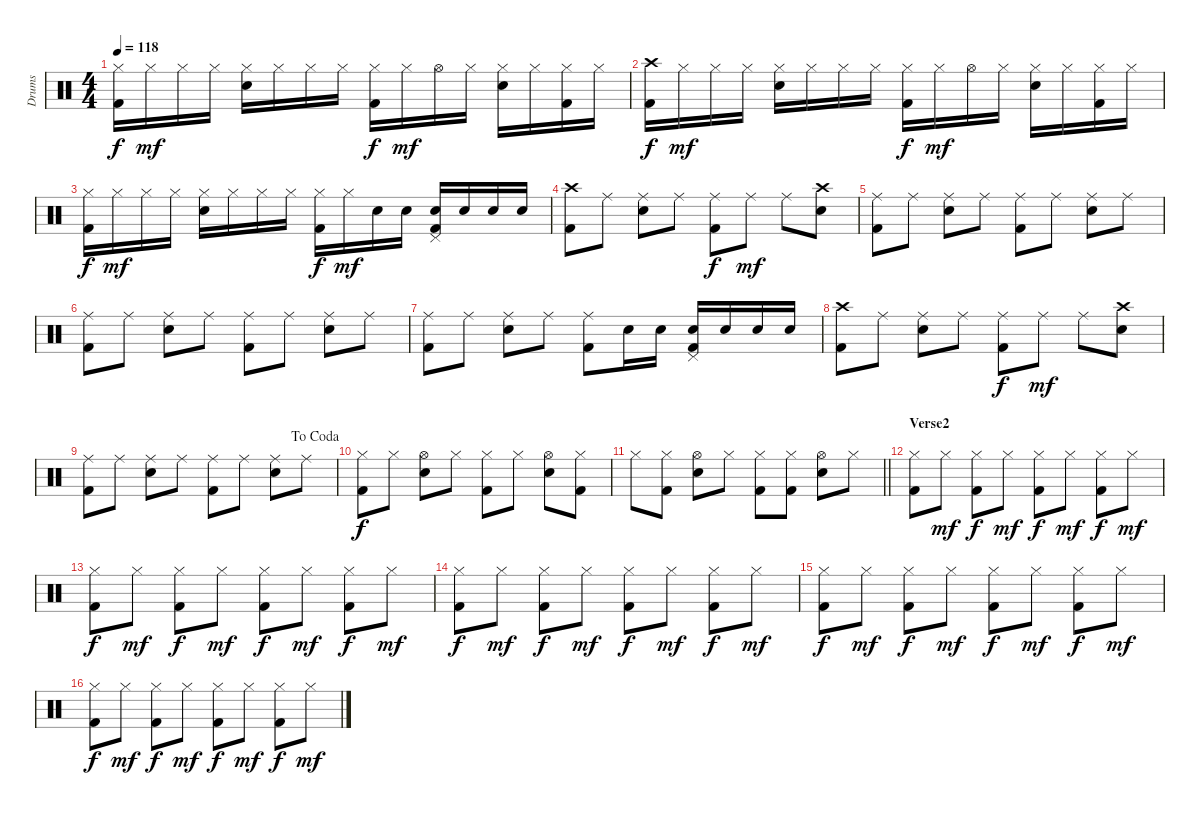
\track ("Drums" "Drums") {instrument percussion}
\staff {score}
\articulation defaults
\ts (4 4)
\tempo 118
\clef neutral
\ks c
("Hi-Hat (closed)" "Kick (hit) 2").16{dy f} "Hi-Hat (closed)".16{dy mf} "Hi-Hat (closed)".16 "Hi-Hat (closed)".16 ("Hi-Hat (closed)" "Snare (hit) 2").16 "Hi-Hat (closed)".16 "Hi-Hat (closed)".16 "Hi-Hat (closed)".16 ("Hi-Hat (closed)" "Kick (hit) 2").16{dy f} "Hi-Hat (closed)".16{dy mf} "Hi-Hat (open)".16 "Hi-Hat (closed)".16 ("Hi-Hat (closed)" "Snare (hit) 2").16 "Hi-Hat (closed)".16 ("Hi-Hat (closed)" "Kick (hit) 2").16 "Hi-Hat (closed)".16 |
("Crash high (hit)" "Kick (hit) 2").16{dy f} "Hi-Hat (closed)".16{dy mf} "Hi-Hat (closed)".16 "Hi-Hat (closed)".16 ("Hi-Hat (closed)" "Snare (hit) 2").16 "Hi-Hat (closed)".16 "Hi-Hat (closed)".16 "Hi-Hat (closed)".16 ("Hi-Hat (closed)" "Kick (hit) 2").16{dy f} "Hi-Hat (closed)".16{dy mf} "Hi-Hat (open)".16 "Hi-Hat (closed)".16 ("Hi-Hat (closed)" "Snare (hit) 2").16 "Hi-Hat (closed)".16 ("Hi-Hat (closed)" "Kick (hit) 2").16 "Hi-Hat (closed)".16 |
("Hi-Hat (closed)" "Kick (hit) 2").16{dy f} "Hi-Hat (closed)".16{dy mf} "Hi-Hat (closed)".16 "Hi-Hat (closed)".16 ("Hi-Hat (closed)" "Snare (hit) 2").16 "Hi-Hat (closed)".16 "Hi-Hat (closed)".16 "Hi-Hat (closed)".16 ("Hi-Hat (closed)" "Kick (hit) 2").16{dy f} "Hi-Hat (closed)".16{dy mf} "Snare (hit) 2".16 "Snare (hit) 2".16 ("Pedal Hi-Hat (hit)" "Snare (hit) 2" "Kick (hit) 2").16 "Snare (hit) 2".16 "Snare (hit) 2".16 "Snare (hit) 2".16 |
("Crash high (hit)" "Kick (hit) 2").8 "Ride (middle)".8 ("Ride (middle)" "Snare (hit) 2").8 "Ride (middle)".8 ("Ride (middle)" "Kick (hit) 2").8{dy f} "Ride (middle)".8{dy mf} "Ride (middle)".8 ("Crash high (hit)" "Snare (hit) 2").8 |
("Ride (middle)" "Kick (hit) 2").8 "Ride (middle)".8 ("Ride (middle)" "Snare (hit) 2").8 "Ride (middle)".8 ("Ride (middle)" "Kick (hit) 2").8 "Ride (middle)".8 ("Ride (middle)" "Snare (hit) 2").8 "Ride (middle)".8 |
("Ride (middle)" "Kick (hit) 2").8 "Ride (middle)".8 ("Ride (middle)" "Snare (hit) 2").8 "Ride (middle)".8 ("Ride (middle)" "Kick (hit) 2").8 "Ride (middle)".8 ("Ride (middle)" "Snare (hit) 2").8 "Ride (middle)".8 |
("Ride (middle)" "Kick (hit) 2").8 "Ride (middle)".8 ("Ride (middle)" "Snare (hit) 2").8 "Ride (middle)".8 ("Ride (middle)" "Kick (hit) 2").8 "Snare (hit) 2".16 "Snare (hit) 2".16 ("Pedal Hi-Hat (hit)" "Snare (hit) 2" "Kick (hit) 2").16 "Snare (hit) 2".16 "Snare (hit) 2".16 "Snare (hit) 2".16 |
("Crash high (hit)" "Kick (hit) 2").8 "Ride (middle)".8 ("Ride (middle)" "Snare (hit) 2").8 "Ride (middle)".8 ("Ride (middle)" "Kick (hit) 2").8{dy f} "Ride (middle)".8{dy mf} "Ride (middle)".8 ("Crash high (hit)" "Snare (hit) 2").8 |
\jump dacoda
("Ride (middle)" "Kick (hit) 2").8 "Ride (middle)".8 ("Ride (middle)" "Snare (hit) 2").8 "Ride (middle)".8 ("Ride (middle)" "Kick (hit) 2").8 "Ride (middle)".8 ("Ride (middle)" "Snare (hit) 2").8 "Ride (middle)".8 |
("Hi-Hat (closed)" "Kick (hit) 2").8{dy f} "Hi-Hat (closed)".8 ("Hi-Hat (open)" "Snare (hit) 2").8 "Hi-Hat (closed)".8 ("Hi-Hat (closed)" "Kick (hit) 2").8 "Hi-Hat (closed)".8 ("Hi-Hat (open)" "Snare (hit) 2").8 ("Hi-Hat (closed)" "Kick (hit) 2").8 |
\barLineRight lightlight "Hi-Hat (closed)".8
("Hi-Hat (closed)" "Kick (hit) 2").8 ("Hi-Hat (open)" "Snare (hit) 2").8 "Hi-Hat (closed)".8 ("Hi-Hat (closed)" "Kick (hit) 2").8 ("Hi-Hat (closed)" "Kick (hit) 2").8 ("Hi-Hat (open)" "Snare (hit) 2").8 "Hi-Hat (closed)".8 |
\section ("" "Verse2")
("Hi-Hat (closed)" "Kick (hit) 2").8 "Hi-Hat (closed)".8{dy mf} ("Hi-Hat (closed)" "Kick (hit) 2").8{dy f} "Hi-Hat (closed)".8{dy mf} ("Hi-Hat (closed)" "Kick (hit) 2").8{dy f} "Hi-Hat (closed)".8{dy mf} ("Hi-Hat (closed)" "Kick (hit) 2").8{dy f} "Hi-Hat (closed)".8{dy mf} |
("Hi-Hat (closed)" "Kick (hit) 2").8{dy f} "Hi-Hat (closed)".8{dy mf} ("Hi-Hat (closed)" "Kick (hit) 2").8{dy f} "Hi-Hat (closed)".8{dy mf} ("Hi-Hat (closed)" "Kick (hit) 2").8{dy f} "Hi-Hat (closed)".8{dy mf} ("Hi-Hat (closed)" "Kick (hit) 2").8{dy f} "Hi-Hat (closed)".8{dy mf} |
("Hi-Hat (closed)" "Kick (hit) 2").8{dy f} "Hi-Hat (closed)".8{dy mf} ("Hi-Hat (closed)" "Kick (hit) 2").8{dy f} "Hi-Hat (closed)".8{dy mf} ("Hi-Hat (closed)" "Kick (hit) 2").8{dy f} "Hi-Hat (closed)".8{dy mf} ("Hi-Hat (closed)" "Kick (hit) 2").8{dy f} "Hi-Hat (closed)".8{dy mf} |
("Hi-Hat (closed)" "Kick (hit) 2").8{dy f} "Hi-Hat (closed)".8{dy mf} ("Hi-Hat (closed)" "Kick (hit) 2").8{dy f} "Hi-Hat (closed)".8{dy mf} ("Hi-Hat (closed)" "Kick (hit) 2").8{dy f} "Hi-Hat (closed)".8{dy mf} ("Hi-Hat (closed)" "Kick (hit) 2").8{dy f} "Hi-Hat (closed)".8{dy mf} |
("Hi-Hat (closed)" "Kick (hit) 2").8{dy f} "Hi-Hat (closed)".8{dy mf} ("Hi-Hat (closed)" "Kick (hit) 2").8{dy f} "Hi-Hat (closed)".8{dy mf} ("Hi-Hat (closed)" "Kick (hit) 2").8{dy f} "Hi-Hat (closed)".8{dy mf} ("Hi-Hat (closed)" "Kick (hit) 2").8{dy f} "Hi-Hat (closed)".8{dy mf}
